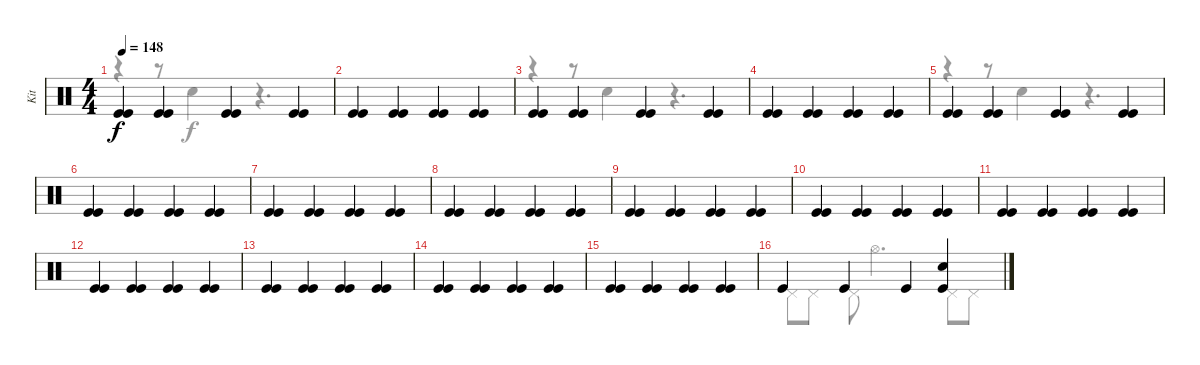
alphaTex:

\track ("Kit" "Kit") {instrument percussion}
\staff {score}
\articulation defaults
\voice
\ts (4 4)
\tempo 148
\clef neutral
\ks c
("Kick (hit)" "Kick (hit)").4{dy f} ("Kick (hit)" "Kick (hit)").4 ("Kick (hit)" "Kick (hit)").4 ("Kick (hit)" "Kick (hit)").4 |
("Kick (hit)" "Kick (hit)").4 ("Kick (hit)" "Kick (hit)").4 ("Kick (hit)" "Kick (hit)").4 ("Kick (hit)" "Kick (hit)").4 |
("Kick (hit)" "Kick (hit)").4 ("Kick (hit)" "Kick (hit)").4 ("Kick (hit)" "Kick (hit)").4 ("Kick (hit)" "Kick (hit)").4 |
("Kick (hit)" "Kick (hit)").4 ("Kick (hit)" "Kick (hit)").4 ("Kick (hit)" "Kick (hit)").4 ("Kick (hit)" "Kick (hit)").4 |
("Kick (hit)" "Kick (hit)").4 ("Kick (hit)" "Kick (hit)").4 ("Kick (hit)" "Kick (hit)").4 ("Kick (hit)" "Kick (hit)").4 |
("Kick (hit)" "Kick (hit)").4 ("Kick (hit)" "Kick (hit)").4 ("Kick (hit)" "Kick (hit)").4 ("Kick (hit)" "Kick (hit)").4 |
("Kick (hit)" "Kick (hit)").4 ("Kick (hit)" "Kick (hit)").4 ("Kick (hit)" "Kick (hit)").4 ("Kick (hit)" "Kick (hit)").4 |
("Kick (hit)" "Kick (hit)").4 ("Kick (hit)" "Kick (hit)").4 ("Kick (hit)" "Kick (hit)").4 ("Kick (hit)" "Kick (hit)").4 |
("Kick (hit)" "Kick (hit)").4 ("Kick (hit)" "Kick (hit)").4 ("Kick (hit)" "Kick (hit)").4 ("Kick (hit)" "Kick (hit)").4 |
("Kick (hit)" "Kick (hit)").4 ("Kick (hit)" "Kick (hit)").4 ("Kick (hit)" "Kick (hit)").4 ("Kick (hit)" "Kick (hit)").4 |
("Kick (hit)" "Kick (hit)").4 ("Kick (hit)" "Kick (hit)").4 ("Kick (hit)" "Kick (hit)").4 ("Kick (hit)" "Kick (hit)").4 |
("Kick (hit)" "Kick (hit)").4 ("Kick (hit)" "Kick (hit)").4 ("Kick (hit)" "Kick (hit)").4 ("Kick (hit)" "Kick (hit)").4 |
("Kick (hit)" "Kick (hit)").4 ("Kick (hit)" "Kick (hit)").4 ("Kick (hit)" "Kick (hit)").4 ("Kick (hit)" "Kick (hit)").4 |
("Kick (hit)" "Kick (hit)").4 ("Kick (hit)" "Kick (hit)").4 ("Kick (hit)" "Kick (hit)").4 ("Kick (hit)" "Kick (hit)").4 |
("Kick (hit)" "Kick (hit)").4 ("Kick (hit)" "Kick (hit)").4 ("Kick (hit)" "Kick (hit)").4 ("Kick (hit)" "Kick (hit)").4 |
"Kick (hit)".4 "Kick (hit)".4 "Kick (hit)".4 ("Snare (hit) 2" "Kick (hit)").4
\voice
\clef neutral
\ottava regular
\simile none
\ks c
r.4{dy fff} r.8 "Snare (hit) 2".4{dy f} r.4{d} |
|
r.4 r.8 "Snare (hit) 2".4 r.4{d} |
|
r.4 r.8 "Snare (hit) 2".4 r.4{d} |
|
|
|
|
|
|
|
|
|
|
"Pedal Hi-Hat (hit)".8 "Pedal Hi-Hat (hit)".8 "Pedal Hi-Hat (hit)".8 "Hi-Hat (open)".4{d} "Pedal Hi-Hat (hit)".8 "Pedal Hi-Hat (hit)".8
